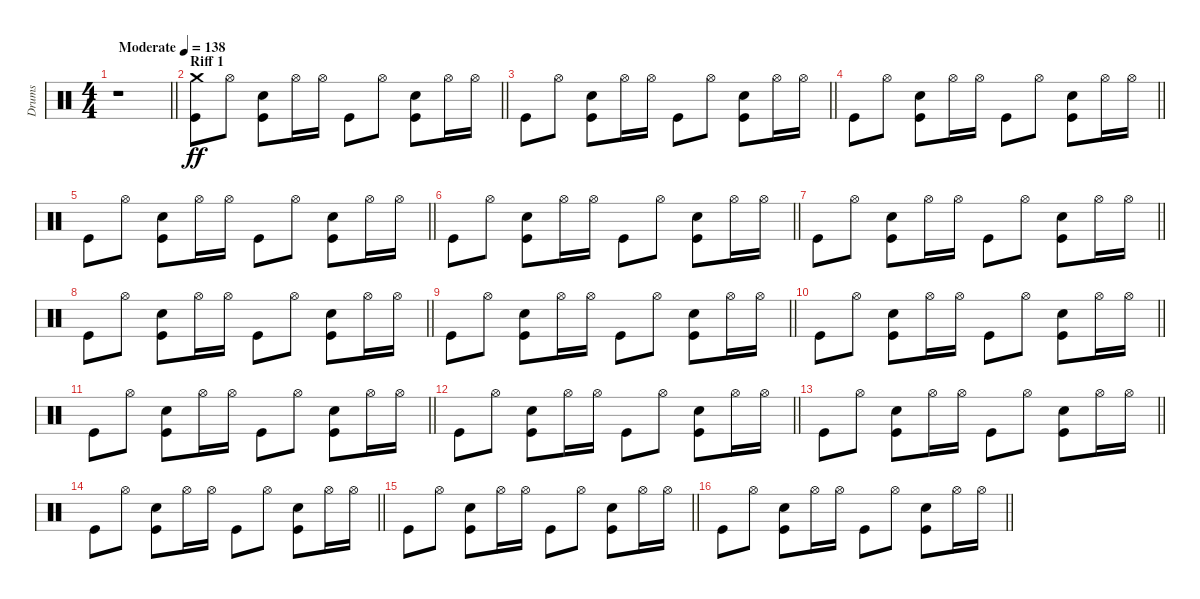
\track ("Drums" "Drums") {instrument percussion}
\staff {score}
\articulation defaults
\ts (4 4)
\tempo (138 "Moderate")
\clef neutral
\barLineRight lightlight
\ks c
r.1{dy ff} |
\section ("" "Riff 1")
\barLineRight lightlight
("Kick (hit)" "Crash medium (hit)").8 "Hi-Hat (open)".8 ("Kick (hit)" "Snare (hit) 2").8 "Hi-Hat (open)".16 "Hi-Hat (open)".16 "Kick (hit)".8 "Hi-Hat (open)".8 ("Kick (hit)" "Snare (hit) 2").8 "Hi-Hat (open)".16 "Hi-Hat (open)".16 |
\barLineRight lightlight "Kick (hit)".8 "Hi-Hat (open)".8
("Kick (hit)" "Snare (hit) 2").8 "Hi-Hat (open)".16 "Hi-Hat (open)".16 "Kick (hit)".8 "Hi-Hat (open)".8 ("Kick (hit)" "Snare (hit) 2").8 "Hi-Hat (open)".16 "Hi-Hat (open)".16 |
\barLineRight lightlight "Kick (hit)".8 "Hi-Hat (open)".8
("Kick (hit)" "Snare (hit) 2").8 "Hi-Hat (open)".16 "Hi-Hat (open)".16 "Kick (hit)".8 "Hi-Hat (open)".8 ("Kick (hit)" "Snare (hit) 2").8 "Hi-Hat (open)".16 "Hi-Hat (open)".16 |
\barLineRight lightlight "Kick (hit)".8 "Hi-Hat (open)".8
("Kick (hit)" "Snare (hit) 2").8 "Hi-Hat (open)".16 "Hi-Hat (open)".16 "Kick (hit)".8 "Hi-Hat (open)".8 ("Kick (hit)" "Snare (hit) 2").8 "Hi-Hat (open)".16 "Hi-Hat (open)".16 |
\barLineRight lightlight "Kick (hit)".8 "Hi-Hat (open)".8
("Kick (hit)" "Snare (hit) 2").8 "Hi-Hat (open)".16 "Hi-Hat (open)".16 "Kick (hit)".8 "Hi-Hat (open)".8 ("Kick (hit)" "Snare (hit) 2").8 "Hi-Hat (open)".16 "Hi-Hat (open)".16 |
\barLineRight lightlight "Kick (hit)".8 "Hi-Hat (open)".8
("Kick (hit)" "Snare (hit) 2").8 "Hi-Hat (open)".16 "Hi-Hat (open)".16 "Kick (hit)".8 "Hi-Hat (open)".8 ("Kick (hit)" "Snare (hit) 2").8 "Hi-Hat (open)".16 "Hi-Hat (open)".16 |
\barLineRight lightlight "Kick (hit)".8 "Hi-Hat (open)".8
("Kick (hit)" "Snare (hit) 2").8 "Hi-Hat (open)".16 "Hi-Hat (open)".16 "Kick (hit)".8 "Hi-Hat (open)".8 ("Kick (hit)" "Snare (hit) 2").8 "Hi-Hat (open)".16 "Hi-Hat (open)".16 |
\barLineRight lightlight "Kick (hit)".8 "Hi-Hat (open)".8
("Kick (hit)" "Snare (hit) 2").8 "Hi-Hat (open)".16 "Hi-Hat (open)".16 "Kick (hit)".8 "Hi-Hat (open)".8 ("Kick (hit)" "Snare (hit) 2").8 "Hi-Hat (open)".16 "Hi-Hat (open)".16 |
\barLineRight lightlight "Kick (hit)".8 "Hi-Hat (open)".8
("Kick (hit)" "Snare (hit) 2").8 "Hi-Hat (open)".16 "Hi-Hat (open)".16 "Kick (hit)".8 "Hi-Hat (open)".8 ("Kick (hit)" "Snare (hit) 2").8 "Hi-Hat (open)".16 "Hi-Hat (open)".16 |
\barLineRight lightlight "Kick (hit)".8 "Hi-Hat (open)".8
("Kick (hit)" "Snare (hit) 2").8 "Hi-Hat (open)".16 "Hi-Hat (open)".16 "Kick (hit)".8 "Hi-Hat (open)".8 ("Kick (hit)" "Snare (hit) 2").8 "Hi-Hat (open)".16 "Hi-Hat (open)".16 |
\barLineRight lightlight "Kick (hit)".8 "Hi-Hat (open)".8
("Kick (hit)" "Snare (hit) 2").8 "Hi-Hat (open)".16 "Hi-Hat (open)".16 "Kick (hit)".8 "Hi-Hat (open)".8 ("Kick (hit)" "Snare (hit) 2").8 "Hi-Hat (open)".16 "Hi-Hat (open)".16 |
\barLineRight lightlight "Kick (hit)".8 "Hi-Hat (open)".8
("Kick (hit)" "Snare (hit) 2").8 "Hi-Hat (open)".16 "Hi-Hat (open)".16 "Kick (hit)".8 "Hi-Hat (open)".8 ("Kick (hit)" "Snare (hit) 2").8 "Hi-Hat (open)".16 "Hi-Hat (open)".16 |
\barLineRight lightlight "Kick (hit)".8 "Hi-Hat (open)".8
("Kick (hit)" "Snare (hit) 2").8 "Hi-Hat (open)".16 "Hi-Hat (open)".16 "Kick (hit)".8 "Hi-Hat (open)".8 ("Kick (hit)" "Snare (hit) 2").8 "Hi-Hat (open)".16 "Hi-Hat (open)".16 |
\barLineRight lightlight "Kick (hit)".8 "Hi-Hat (open)".8
("Kick (hit)" "Snare (hit) 2").8 "Hi-Hat (open)".16 "Hi-Hat (open)".16 "Kick (hit)".8 "Hi-Hat (open)".8 ("Kick (hit)" "Snare (hit) 2").8 "Hi-Hat (open)".16 "Hi-Hat (open)".16 |
\barLineRight lightlight "Kick (hit)".8 "Hi-Hat (open)".8
("Kick (hit)" "Snare (hit) 2").8 "Hi-Hat (open)".16 "Hi-Hat (open)".16 "Kick (hit)".8 "Hi-Hat (open)".8 ("Kick (hit)" "Snare (hit) 2").8 "Hi-Hat (open)".16 "Hi-Hat (open)".16
